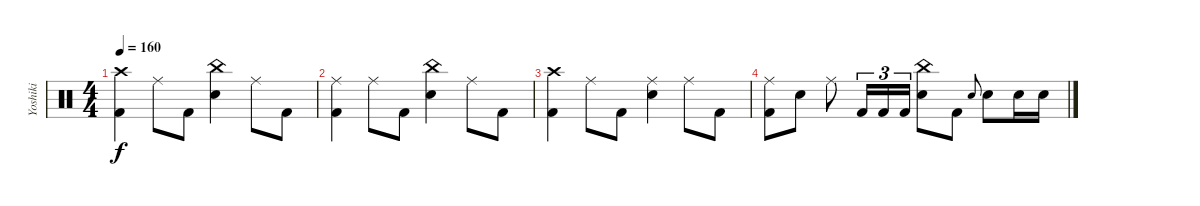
\track ("Yoshiki" "Yoshiki") {instrument percussion}
\staff {score}
\articulation defaults
\ts (4 4)
\tempo 160
\clef neutral
\ks c
("Crash high (hit)" "Kick (hit) 2").4{dy f} "Ride (middle)".8 "Kick (hit) 2".8 ("China (hit)" "Snare (hit) 2").4 "Ride (middle)".8 "Kick (hit) 2".8 |
("Ride (middle)" "Kick (hit) 2").4 "Ride (middle)".8 "Kick (hit) 2".8 ("China (hit)" "Snare (hit) 2").4 "Ride (middle)".8 "Kick (hit) 2".8 |
("Crash high (hit)" "Kick (hit) 2").4 "Ride (middle)".8 "Kick (hit) 2".8 ("Ride (middle)" "Snare (hit) 2").4 "Ride (middle)".8 "Kick (hit) 2".8 |
("Ride (middle)" "Kick (hit) 2").8 "Snare (hit) 2".8 "Ride (middle)".8 "Kick (hit) 2".16{tu (3 2)} "Kick (hit) 2".16{tu (3 2)} "Kick (hit) 2".16{tu (3 2)} ("China (hit)" "Snare (hit) 2").8 "Kick (hit) 2".8 "Snare (hit) 2".8{gr onbeat} "Snare (hit) 2".8 "Snare (hit) 2".16 "Snare (hit) 2".16
